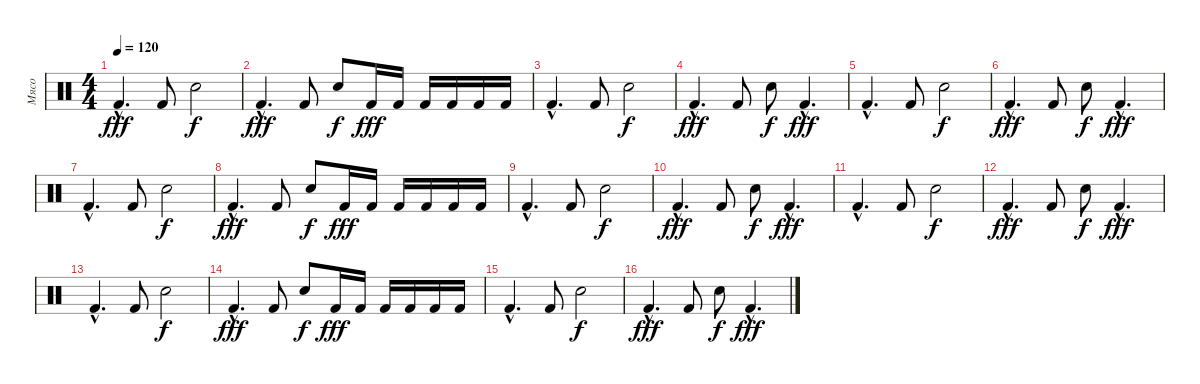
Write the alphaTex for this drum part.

\track ("Мясо" "Мясо") {instrument percussion}
\staff {score}
\articulation defaults
\ts (4 4)
\tempo 120
\clef neutral
\ks c "Kick (hit) 2"{hac}.4{d dy fff} "Kick (hit) 2".8 "Snare (hit) 2".2{dy f}
|
"Kick (hit) 2"{hac}.4{d dy fff} "Kick (hit) 2".8 "Snare (hit) 2".8{dy f} "Kick (hit) 2".16{dy fff} "Kick (hit) 2".16 "Kick (hit) 2".16 "Kick (hit) 2".16 "Kick (hit) 2".16 "Kick (hit) 2".16 |
"Kick (hit) 2"{hac}.4{d} "Kick (hit) 2".8 "Snare (hit) 2".2{dy f} |
"Kick (hit) 2"{hac}.4{d dy fff} "Kick (hit) 2".8 "Snare (hit) 2".8{dy f} "Kick (hit) 2"{hac}.4{d dy fff} |
"Kick (hit) 2"{hac}.4{d} "Kick (hit) 2".8 "Snare (hit) 2".2{dy f} |
"Kick (hit) 2"{hac}.4{d dy fff} "Kick (hit) 2".8 "Snare (hit) 2".8{dy f} "Kick (hit) 2"{hac}.4{d dy fff} |
"Kick (hit) 2"{hac}.4{d} "Kick (hit) 2".8 "Snare (hit) 2".2{dy f} |
"Kick (hit) 2"{hac}.4{d dy fff} "Kick (hit) 2".8 "Snare (hit) 2".8{dy f} "Kick (hit) 2".16{dy fff} "Kick (hit) 2".16 "Kick (hit) 2".16 "Kick (hit) 2".16 "Kick (hit) 2".16 "Kick (hit) 2".16 |
"Kick (hit) 2"{hac}.4{d} "Kick (hit) 2".8 "Snare (hit) 2".2{dy f} |
"Kick (hit) 2"{hac}.4{d dy fff} "Kick (hit) 2".8 "Snare (hit) 2".8{dy f} "Kick (hit) 2"{hac}.4{d dy fff} |
"Kick (hit) 2"{hac}.4{d} "Kick (hit) 2".8 "Snare (hit) 2".2{dy f} |
"Kick (hit) 2"{hac}.4{d dy fff} "Kick (hit) 2".8 "Snare (hit) 2".8{dy f} "Kick (hit) 2"{hac}.4{d dy fff} |
"Kick (hit) 2"{hac}.4{d} "Kick (hit) 2".8 "Snare (hit) 2".2{dy f} |
"Kick (hit) 2"{hac}.4{d dy fff} "Kick (hit) 2".8 "Snare (hit) 2".8{dy f} "Kick (hit) 2".16{dy fff} "Kick (hit) 2".16 "Kick (hit) 2".16 "Kick (hit) 2".16 "Kick (hit) 2".16 "Kick (hit) 2".16 |
"Kick (hit) 2"{hac}.4{d} "Kick (hit) 2".8 "Snare (hit) 2".2{dy f} |
"Kick (hit) 2"{hac}.4{d dy fff} "Kick (hit) 2".8 "Snare (hit) 2".8{dy f} "Kick (hit) 2"{hac}.4{d dy fff}
